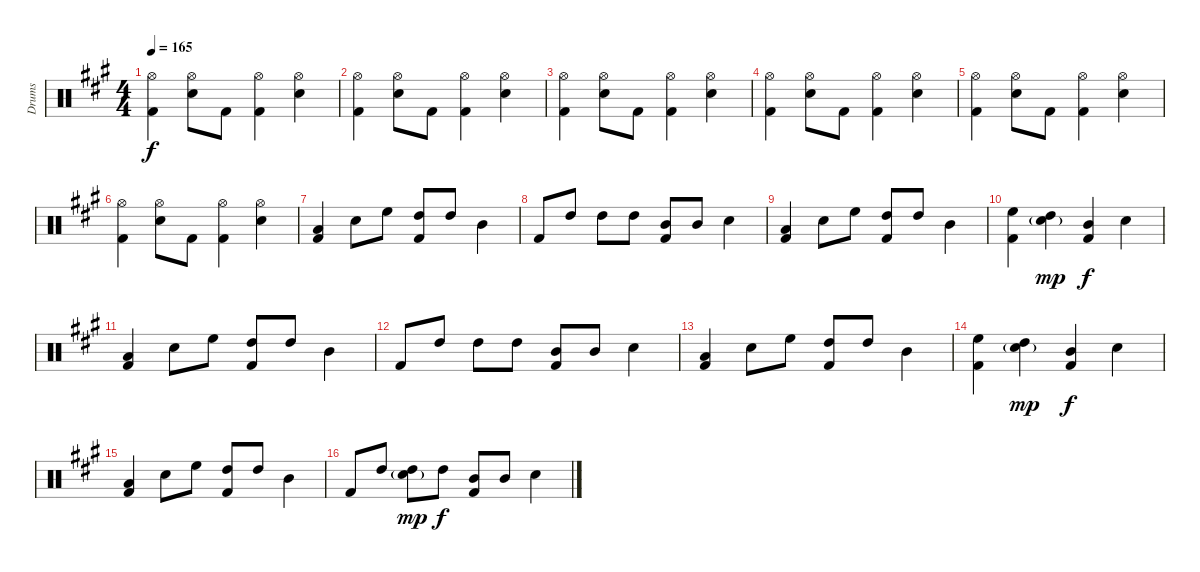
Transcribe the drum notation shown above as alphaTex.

\track ("Drums" "Drums") {instrument percussion}
\staff {score}
\articulation defaults
\ts (4 4)
\tempo 165
\clef neutral
\ks a
("Hi-Hat (open)" "Kick (hit) 2").4{dy f} ("Hi-Hat (open)" "Electric Snare (hit)").8 "Kick (hit) 2".8 ("Hi-Hat (open)" "Kick (hit) 2").4 ("Hi-Hat (open)" "Electric Snare (hit)").4 |
("Hi-Hat (open)" "Kick (hit) 2").4 ("Hi-Hat (open)" "Electric Snare (hit)").8 "Kick (hit) 2".8 ("Hi-Hat (open)" "Kick (hit) 2").4 ("Hi-Hat (open)" "Electric Snare (hit)").4 |
("Hi-Hat (open)" "Kick (hit) 2").4 ("Hi-Hat (open)" "Electric Snare (hit)").8 "Kick (hit) 2".8 ("Hi-Hat (open)" "Kick (hit) 2").4 ("Hi-Hat (open)" "Electric Snare (hit)").4 |
("Hi-Hat (open)" "Kick (hit) 2").4 ("Hi-Hat (open)" "Electric Snare (hit)").8 "Kick (hit) 2".8 ("Hi-Hat (open)" "Kick (hit) 2").4 ("Hi-Hat (open)" "Electric Snare (hit)").4 |
("Hi-Hat (open)" "Kick (hit) 2").4 ("Hi-Hat (open)" "Electric Snare (hit)").8 "Kick (hit) 2".8 ("Hi-Hat (open)" "Kick (hit) 2").4 ("Hi-Hat (open)" "Electric Snare (hit)").4 |
("Hi-Hat (open)" "Kick (hit) 2").4 ("Hi-Hat (open)" "Electric Snare (hit)").8 "Kick (hit) 2".8 ("Hi-Hat (open)" "Kick (hit) 2").4 ("Hi-Hat (open)" "Electric Snare (hit)").4 |
("Low Tom (hit)" "Kick (hit) 2").4 "Electric Snare (hit)".8 "High Floor Tom (hit)".8 ("High Tom (hit)" "Kick (hit) 2").8 "High Tom (hit)".8 "Mid Tom (hit)".4 |
"Kick (hit) 2".8 "High Tom (hit)".8 "High Tom (hit)".8 "High Tom (hit)".8 ("Mid Tom (hit)" "Kick (hit) 2").8 "Mid Tom (hit)".8 "Electric Snare (hit)".4 |
("Low Tom (hit)" "Kick (hit) 2").4 "Electric Snare (hit)".8 "High Floor Tom (hit)".8 ("High Tom (hit)" "Kick (hit) 2").8 "High Tom (hit)".8 "Mid Tom (hit)".4 |
("High Floor Tom (hit)" "Kick (hit) 2").4 ("High Tom (hit)" "Electric Snare (hit)"{g}).4{dy mp} ("Mid Tom (hit)" "Kick (hit) 2").4{dy f} "Electric Snare (hit)".4 |
("Low Tom (hit)" "Kick (hit) 2").4 "Electric Snare (hit)".8 "High Floor Tom (hit)".8 ("High Tom (hit)" "Kick (hit) 2").8 "High Tom (hit)".8 "Mid Tom (hit)".4 |
"Kick (hit) 2".8 "High Tom (hit)".8 "High Tom (hit)".8 "High Tom (hit)".8 ("Mid Tom (hit)" "Kick (hit) 2").8 "Mid Tom (hit)".8 "Electric Snare (hit)".4 |
("Low Tom (hit)" "Kick (hit) 2").4 "Electric Snare (hit)".8 "High Floor Tom (hit)".8 ("High Tom (hit)" "Kick (hit) 2").8 "High Tom (hit)".8 "Mid Tom (hit)".4 |
("High Floor Tom (hit)" "Kick (hit) 2").4 ("High Tom (hit)" "Electric Snare (hit)"{g}).4{dy mp} ("Mid Tom (hit)" "Kick (hit) 2").4{dy f} "Electric Snare (hit)".4 |
("Low Tom (hit)" "Kick (hit) 2").4 "Electric Snare (hit)".8 "High Floor Tom (hit)".8 ("High Tom (hit)" "Kick (hit) 2").8 "High Tom (hit)".8 "Mid Tom (hit)".4 |
"Kick (hit) 2".8 "High Tom (hit)".8 ("High Tom (hit)" "Electric Snare (hit)"{g}).8{dy mp} "High Tom (hit)".8{dy f} ("Mid Tom (hit)" "Kick (hit) 2").8 "Mid Tom (hit)".8 "Electric Snare (hit)".4
